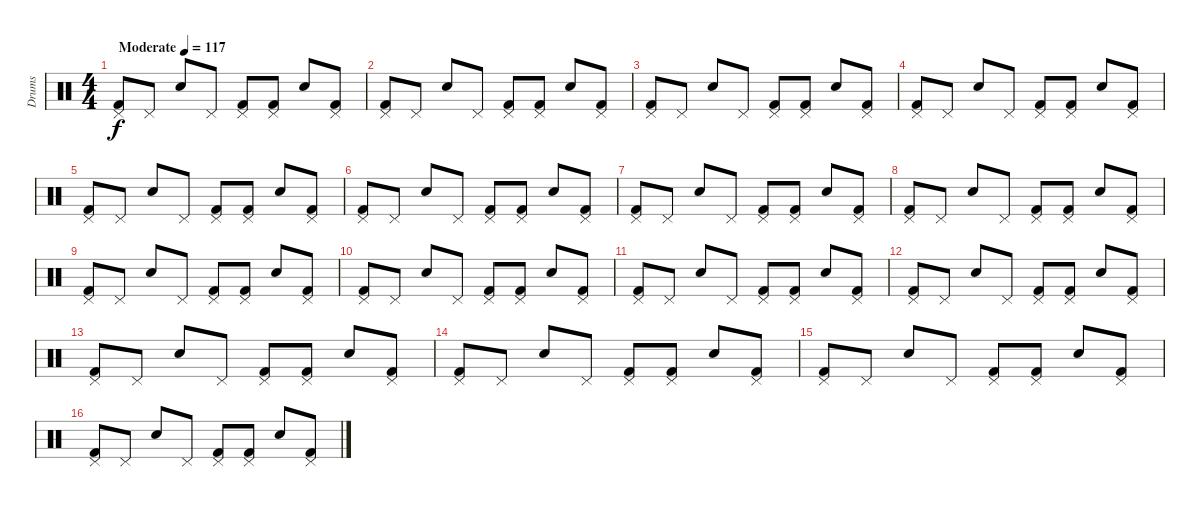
\track ("Drums" "Drums") {instrument percussion}
\staff {score}
\articulation defaults
\ts (4 4)
\tempo (117 "Moderate")
\clef neutral
\ks c
("Pedal Hi-Hat (hit)" "Kick (hit) 2").8{dy f} "Pedal Hi-Hat (hit)".8 "Snare (hit) 2".8 "Pedal Hi-Hat (hit)".8 ("Pedal Hi-Hat (hit)" "Kick (hit) 2").8 ("Pedal Hi-Hat (hit)" "Kick (hit) 2").8 "Snare (hit) 2".8 ("Pedal Hi-Hat (hit)" "Kick (hit) 2").8 |
("Pedal Hi-Hat (hit)" "Kick (hit) 2").8 "Pedal Hi-Hat (hit)".8 "Snare (hit) 2".8 "Pedal Hi-Hat (hit)".8 ("Pedal Hi-Hat (hit)" "Kick (hit) 2").8 ("Pedal Hi-Hat (hit)" "Kick (hit) 2").8 "Snare (hit) 2".8 ("Pedal Hi-Hat (hit)" "Kick (hit) 2").8 |
("Pedal Hi-Hat (hit)" "Kick (hit) 2").8 "Pedal Hi-Hat (hit)".8 "Snare (hit) 2".8 "Pedal Hi-Hat (hit)".8 ("Pedal Hi-Hat (hit)" "Kick (hit) 2").8 ("Pedal Hi-Hat (hit)" "Kick (hit) 2").8 "Snare (hit) 2".8 ("Pedal Hi-Hat (hit)" "Kick (hit) 2").8 |
("Pedal Hi-Hat (hit)" "Kick (hit) 2").8 "Pedal Hi-Hat (hit)".8 "Snare (hit) 2".8 "Pedal Hi-Hat (hit)".8 ("Pedal Hi-Hat (hit)" "Kick (hit) 2").8 ("Pedal Hi-Hat (hit)" "Kick (hit) 2").8 "Snare (hit) 2".8 ("Pedal Hi-Hat (hit)" "Kick (hit) 2").8 |
("Pedal Hi-Hat (hit)" "Kick (hit) 2").8 "Pedal Hi-Hat (hit)".8 "Snare (hit) 2".8 "Pedal Hi-Hat (hit)".8 ("Pedal Hi-Hat (hit)" "Kick (hit) 2").8 ("Pedal Hi-Hat (hit)" "Kick (hit) 2").8 "Snare (hit) 2".8 ("Pedal Hi-Hat (hit)" "Kick (hit) 2").8 |
("Pedal Hi-Hat (hit)" "Kick (hit) 2").8 "Pedal Hi-Hat (hit)".8 "Snare (hit) 2".8 "Pedal Hi-Hat (hit)".8 ("Pedal Hi-Hat (hit)" "Kick (hit) 2").8 ("Pedal Hi-Hat (hit)" "Kick (hit) 2").8 "Snare (hit) 2".8 ("Pedal Hi-Hat (hit)" "Kick (hit) 2").8 |
("Pedal Hi-Hat (hit)" "Kick (hit) 2").8 "Pedal Hi-Hat (hit)".8 "Snare (hit) 2".8 "Pedal Hi-Hat (hit)".8 ("Pedal Hi-Hat (hit)" "Kick (hit) 2").8 ("Pedal Hi-Hat (hit)" "Kick (hit) 2").8 "Snare (hit) 2".8 ("Pedal Hi-Hat (hit)" "Kick (hit) 2").8 |
("Pedal Hi-Hat (hit)" "Kick (hit) 2").8 "Pedal Hi-Hat (hit)".8 "Snare (hit) 2".8 "Pedal Hi-Hat (hit)".8 ("Pedal Hi-Hat (hit)" "Kick (hit) 2").8 ("Pedal Hi-Hat (hit)" "Kick (hit) 2").8 "Snare (hit) 2".8 ("Pedal Hi-Hat (hit)" "Kick (hit) 2").8 |
("Pedal Hi-Hat (hit)" "Kick (hit) 2").8 "Pedal Hi-Hat (hit)".8 "Snare (hit) 2".8 "Pedal Hi-Hat (hit)".8 ("Pedal Hi-Hat (hit)" "Kick (hit) 2").8 ("Pedal Hi-Hat (hit)" "Kick (hit) 2").8 "Snare (hit) 2".8 ("Pedal Hi-Hat (hit)" "Kick (hit) 2").8 |
("Pedal Hi-Hat (hit)" "Kick (hit) 2").8 "Pedal Hi-Hat (hit)".8 "Snare (hit) 2".8 "Pedal Hi-Hat (hit)".8 ("Pedal Hi-Hat (hit)" "Kick (hit) 2").8 ("Pedal Hi-Hat (hit)" "Kick (hit) 2").8 "Snare (hit) 2".8 ("Pedal Hi-Hat (hit)" "Kick (hit) 2").8 |
("Pedal Hi-Hat (hit)" "Kick (hit) 2").8 "Pedal Hi-Hat (hit)".8 "Snare (hit) 2".8 "Pedal Hi-Hat (hit)".8 ("Pedal Hi-Hat (hit)" "Kick (hit) 2").8 ("Pedal Hi-Hat (hit)" "Kick (hit) 2").8 "Snare (hit) 2".8 ("Pedal Hi-Hat (hit)" "Kick (hit) 2").8 |
("Pedal Hi-Hat (hit)" "Kick (hit) 2").8 "Pedal Hi-Hat (hit)".8 "Snare (hit) 2".8 "Pedal Hi-Hat (hit)".8 ("Pedal Hi-Hat (hit)" "Kick (hit) 2").8 ("Pedal Hi-Hat (hit)" "Kick (hit) 2").8 "Snare (hit) 2".8 ("Pedal Hi-Hat (hit)" "Kick (hit) 2").8 |
("Pedal Hi-Hat (hit)" "Kick (hit) 2").8 "Pedal Hi-Hat (hit)".8 "Snare (hit) 2".8 "Pedal Hi-Hat (hit)".8 ("Pedal Hi-Hat (hit)" "Kick (hit) 2").8 ("Pedal Hi-Hat (hit)" "Kick (hit) 2").8 "Snare (hit) 2".8 ("Pedal Hi-Hat (hit)" "Kick (hit) 2").8 |
("Pedal Hi-Hat (hit)" "Kick (hit) 2").8 "Pedal Hi-Hat (hit)".8 "Snare (hit) 2".8 "Pedal Hi-Hat (hit)".8 ("Pedal Hi-Hat (hit)" "Kick (hit) 2").8 ("Pedal Hi-Hat (hit)" "Kick (hit) 2").8 "Snare (hit) 2".8 ("Pedal Hi-Hat (hit)" "Kick (hit) 2").8 |
("Pedal Hi-Hat (hit)" "Kick (hit) 2").8 "Pedal Hi-Hat (hit)".8 "Snare (hit) 2".8 "Pedal Hi-Hat (hit)".8 ("Pedal Hi-Hat (hit)" "Kick (hit) 2").8 ("Pedal Hi-Hat (hit)" "Kick (hit) 2").8 "Snare (hit) 2".8 ("Pedal Hi-Hat (hit)" "Kick (hit) 2").8 |
("Pedal Hi-Hat (hit)" "Kick (hit) 2").8 "Pedal Hi-Hat (hit)".8 "Snare (hit) 2".8 "Pedal Hi-Hat (hit)".8 ("Pedal Hi-Hat (hit)" "Kick (hit) 2").8 ("Pedal Hi-Hat (hit)" "Kick (hit) 2").8 "Snare (hit) 2".8 ("Pedal Hi-Hat (hit)" "Kick (hit) 2").8
